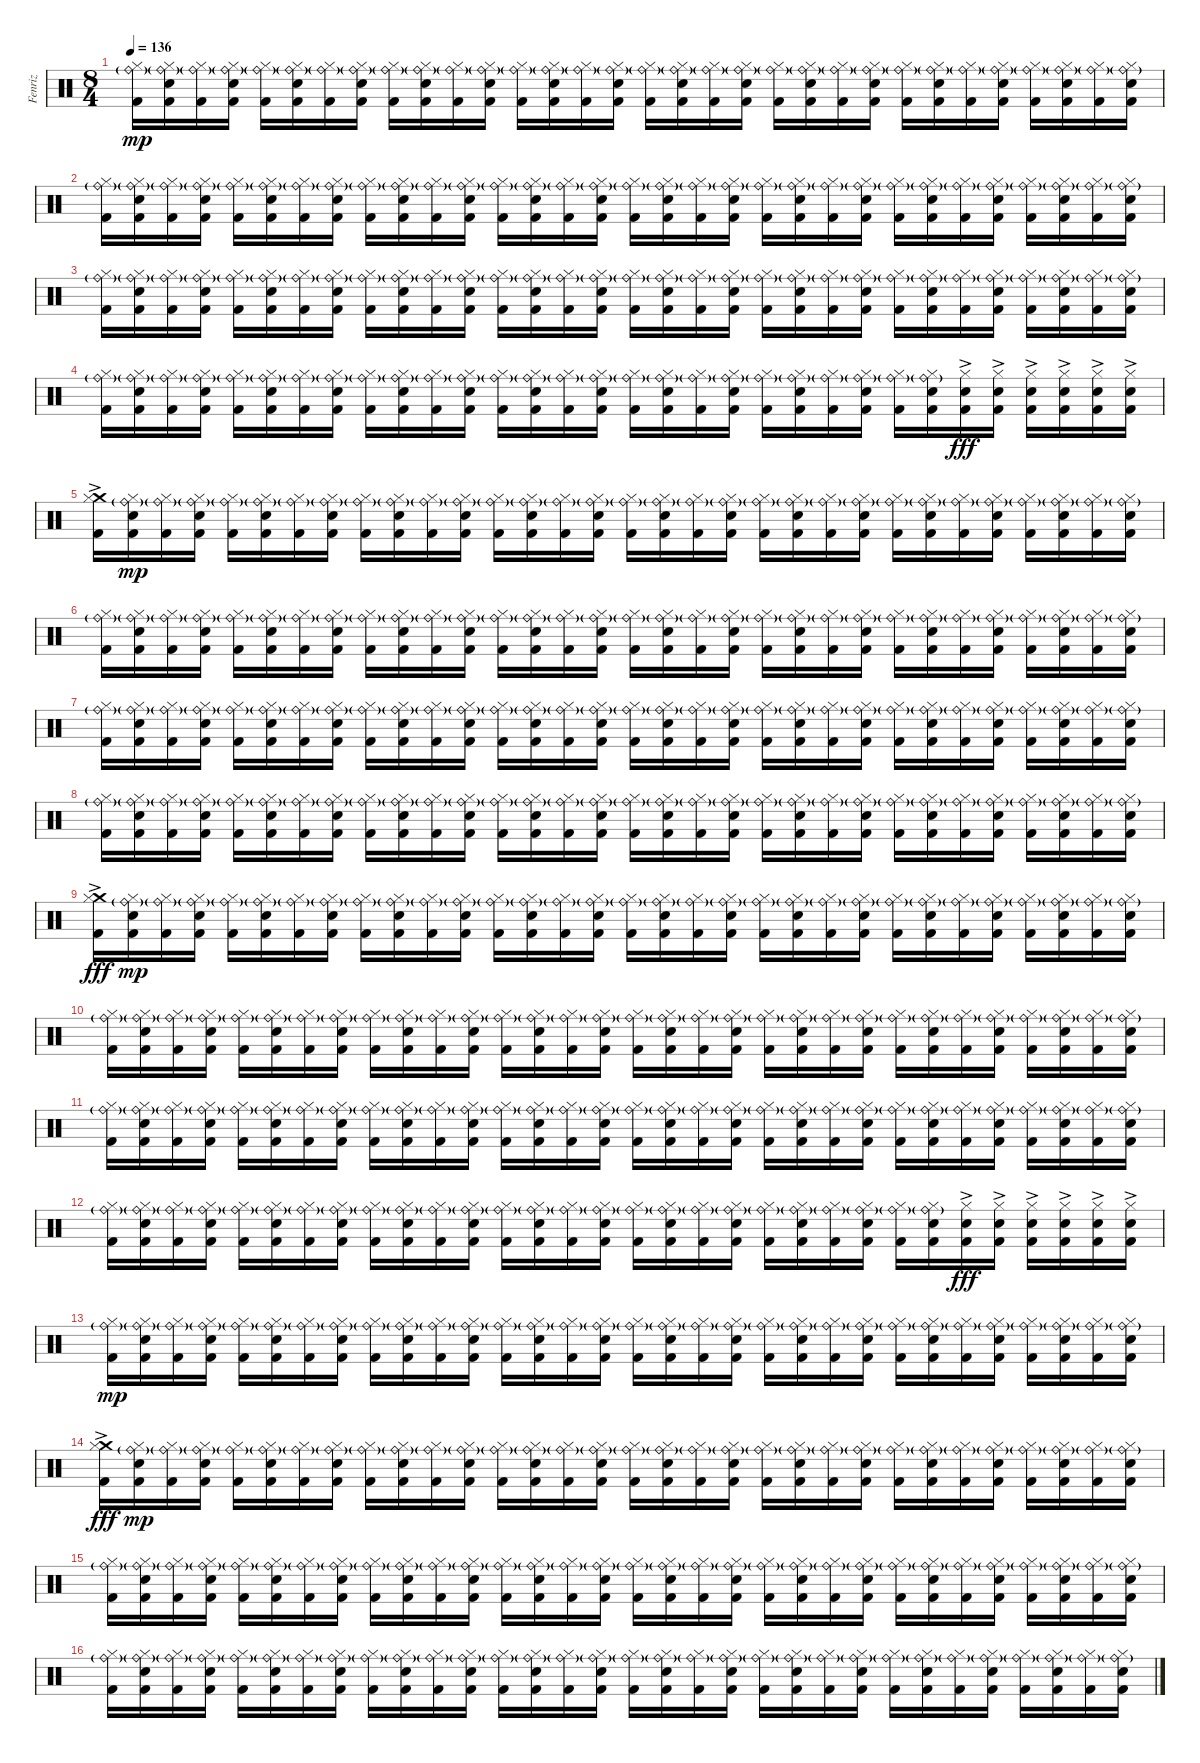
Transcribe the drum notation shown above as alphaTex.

\track ("Fenriz" "Fenriz") {instrument percussion}
\staff {score}
\articulation defaults
\ts (8 4)
\tempo 136
\clef neutral
\ks c
("Ride (bell)"{g} "Hi-Hat (closed)" "Kick (hit) 2").16{dy mp} ("Ride (bell)"{g} "Snare (hit) 2" "Hi-Hat (closed)" "Kick (hit) 2").16 ("Ride (bell)"{g} "Hi-Hat (closed)" "Kick (hit) 2").16 ("Ride (bell)"{g} "Snare (hit) 2" "Hi-Hat (closed)" "Kick (hit) 2").16 ("Ride (bell)"{g} "Hi-Hat (closed)" "Kick (hit) 2").16 ("Ride (bell)"{g} "Snare (hit) 2" "Hi-Hat (closed)" "Kick (hit) 2").16 ("Ride (bell)"{g} "Hi-Hat (closed)" "Kick (hit) 2").16 ("Ride (bell)"{g} "Snare (hit) 2" "Hi-Hat (closed)" "Kick (hit) 2").16 ("Ride (bell)"{g} "Hi-Hat (closed)" "Kick (hit) 2").16 ("Ride (bell)"{g} "Snare (hit) 2" "Hi-Hat (closed)" "Kick (hit) 2").16 ("Ride (bell)"{g} "Hi-Hat (closed)" "Kick (hit) 2").16 ("Ride (bell)"{g} "Snare (hit) 2" "Hi-Hat (closed)" "Kick (hit) 2").16 ("Ride (bell)"{g} "Hi-Hat (closed)" "Kick (hit) 2").16 ("Ride (bell)"{g} "Snare (hit) 2" "Hi-Hat (closed)" "Kick (hit) 2").16 ("Ride (bell)"{g} "Hi-Hat (closed)" "Kick (hit) 2").16 ("Ride (bell)"{g} "Snare (hit) 2" "Hi-Hat (closed)" "Kick (hit) 2").16 ("Ride (bell)"{g} "Hi-Hat (closed)" "Kick (hit) 2").16 ("Ride (bell)"{g} "Snare (hit) 2" "Hi-Hat (closed)" "Kick (hit) 2").16 ("Ride (bell)"{g} "Hi-Hat (closed)" "Kick (hit) 2").16 ("Ride (bell)"{g} "Snare (hit) 2" "Hi-Hat (closed)" "Kick (hit) 2").16 ("Ride (bell)"{g} "Hi-Hat (closed)" "Kick (hit) 2").16 ("Ride (bell)"{g} "Snare (hit) 2" "Hi-Hat (closed)" "Kick (hit) 2").16 ("Ride (bell)"{g} "Hi-Hat (closed)" "Kick (hit) 2").16 ("Ride (bell)"{g} "Snare (hit) 2" "Hi-Hat (closed)" "Kick (hit) 2").16 ("Ride (bell)"{g} "Hi-Hat (closed)" "Kick (hit) 2").16 ("Ride (bell)"{g} "Snare (hit) 2" "Hi-Hat (closed)" "Kick (hit) 2").16 ("Ride (bell)"{g} "Hi-Hat (closed)" "Kick (hit) 2").16 ("Ride (bell)"{g} "Snare (hit) 2" "Hi-Hat (closed)" "Kick (hit) 2").16 ("Ride (bell)"{g} "Hi-Hat (closed)" "Kick (hit) 2").16 ("Ride (bell)"{g} "Snare (hit) 2" "Hi-Hat (closed)" "Kick (hit) 2").16 ("Ride (bell)"{g} "Hi-Hat (closed)" "Kick (hit) 2").16 ("Ride (bell)"{g} "Snare (hit) 2" "Hi-Hat (closed)" "Kick (hit) 2").16 |
("Ride (bell)"{g} "Hi-Hat (closed)" "Kick (hit) 2").16 ("Ride (bell)"{g} "Snare (hit) 2" "Hi-Hat (closed)" "Kick (hit) 2").16 ("Ride (bell)"{g} "Hi-Hat (closed)" "Kick (hit) 2").16 ("Ride (bell)"{g} "Snare (hit) 2" "Hi-Hat (closed)" "Kick (hit) 2").16 ("Ride (bell)"{g} "Hi-Hat (closed)" "Kick (hit) 2").16 ("Ride (bell)"{g} "Snare (hit) 2" "Hi-Hat (closed)" "Kick (hit) 2").16 ("Ride (bell)"{g} "Hi-Hat (closed)" "Kick (hit) 2").16 ("Ride (bell)"{g} "Snare (hit) 2" "Hi-Hat (closed)" "Kick (hit) 2").16 ("Ride (bell)"{g} "Hi-Hat (closed)" "Kick (hit) 2").16 ("Ride (bell)"{g} "Snare (hit) 2" "Hi-Hat (closed)" "Kick (hit) 2").16 ("Ride (bell)"{g} "Hi-Hat (closed)" "Kick (hit) 2").16 ("Ride (bell)"{g} "Snare (hit) 2" "Hi-Hat (closed)" "Kick (hit) 2").16 ("Ride (bell)"{g} "Hi-Hat (closed)" "Kick (hit) 2").16 ("Ride (bell)"{g} "Snare (hit) 2" "Hi-Hat (closed)" "Kick (hit) 2").16 ("Ride (bell)"{g} "Hi-Hat (closed)" "Kick (hit) 2").16 ("Ride (bell)"{g} "Snare (hit) 2" "Hi-Hat (closed)" "Kick (hit) 2").16 ("Ride (bell)"{g} "Hi-Hat (closed)" "Kick (hit) 2").16 ("Ride (bell)"{g} "Snare (hit) 2" "Hi-Hat (closed)" "Kick (hit) 2").16 ("Ride (bell)"{g} "Hi-Hat (closed)" "Kick (hit) 2").16 ("Ride (bell)"{g} "Snare (hit) 2" "Hi-Hat (closed)" "Kick (hit) 2").16 ("Ride (bell)"{g} "Hi-Hat (closed)" "Kick (hit) 2").16 ("Ride (bell)"{g} "Snare (hit) 2" "Hi-Hat (closed)" "Kick (hit) 2").16 ("Ride (bell)"{g} "Hi-Hat (closed)" "Kick (hit) 2").16 ("Ride (bell)"{g} "Snare (hit) 2" "Hi-Hat (closed)" "Kick (hit) 2").16 ("Ride (bell)"{g} "Hi-Hat (closed)" "Kick (hit) 2").16 ("Ride (bell)"{g} "Snare (hit) 2" "Hi-Hat (closed)" "Kick (hit) 2").16 ("Ride (bell)"{g} "Hi-Hat (closed)" "Kick (hit) 2").16 ("Ride (bell)"{g} "Snare (hit) 2" "Hi-Hat (closed)" "Kick (hit) 2").16 ("Ride (bell)"{g} "Hi-Hat (closed)" "Kick (hit) 2").16 ("Ride (bell)"{g} "Snare (hit) 2" "Hi-Hat (closed)" "Kick (hit) 2").16 ("Ride (bell)"{g} "Hi-Hat (closed)" "Kick (hit) 2").16 ("Ride (bell)"{g} "Snare (hit) 2" "Hi-Hat (closed)" "Kick (hit) 2").16 |
("Ride (bell)"{g} "Hi-Hat (closed)" "Kick (hit) 2").16 ("Ride (bell)"{g} "Snare (hit) 2" "Hi-Hat (closed)" "Kick (hit) 2").16 ("Ride (bell)"{g} "Hi-Hat (closed)" "Kick (hit) 2").16 ("Ride (bell)"{g} "Snare (hit) 2" "Hi-Hat (closed)" "Kick (hit) 2").16 ("Ride (bell)"{g} "Hi-Hat (closed)" "Kick (hit) 2").16 ("Ride (bell)"{g} "Snare (hit) 2" "Hi-Hat (closed)" "Kick (hit) 2").16 ("Ride (bell)"{g} "Hi-Hat (closed)" "Kick (hit) 2").16 ("Ride (bell)"{g} "Snare (hit) 2" "Hi-Hat (closed)" "Kick (hit) 2").16 ("Ride (bell)"{g} "Hi-Hat (closed)" "Kick (hit) 2").16 ("Ride (bell)"{g} "Snare (hit) 2" "Hi-Hat (closed)" "Kick (hit) 2").16 ("Ride (bell)"{g} "Hi-Hat (closed)" "Kick (hit) 2").16 ("Ride (bell)"{g} "Snare (hit) 2" "Hi-Hat (closed)" "Kick (hit) 2").16 ("Ride (bell)"{g} "Hi-Hat (closed)" "Kick (hit) 2").16 ("Ride (bell)"{g} "Snare (hit) 2" "Hi-Hat (closed)" "Kick (hit) 2").16 ("Ride (bell)"{g} "Hi-Hat (closed)" "Kick (hit) 2").16 ("Ride (bell)"{g} "Snare (hit) 2" "Hi-Hat (closed)" "Kick (hit) 2").16 ("Ride (bell)"{g} "Hi-Hat (closed)" "Kick (hit) 2").16 ("Ride (bell)"{g} "Snare (hit) 2" "Hi-Hat (closed)" "Kick (hit) 2").16 ("Ride (bell)"{g} "Hi-Hat (closed)" "Kick (hit) 2").16 ("Ride (bell)"{g} "Snare (hit) 2" "Hi-Hat (closed)" "Kick (hit) 2").16 ("Ride (bell)"{g} "Hi-Hat (closed)" "Kick (hit) 2").16 ("Ride (bell)"{g} "Snare (hit) 2" "Hi-Hat (closed)" "Kick (hit) 2").16 ("Ride (bell)"{g} "Hi-Hat (closed)" "Kick (hit) 2").16 ("Ride (bell)"{g} "Snare (hit) 2" "Hi-Hat (closed)" "Kick (hit) 2").16 ("Ride (bell)"{g} "Hi-Hat (closed)" "Kick (hit) 2").16 ("Ride (bell)"{g} "Snare (hit) 2" "Hi-Hat (closed)" "Kick (hit) 2").16 ("Ride (bell)"{g} "Hi-Hat (closed)" "Kick (hit) 2").16 ("Ride (bell)"{g} "Snare (hit) 2" "Hi-Hat (closed)" "Kick (hit) 2").16 ("Ride (bell)"{g} "Hi-Hat (closed)" "Kick (hit) 2").16 ("Ride (bell)"{g} "Snare (hit) 2" "Hi-Hat (closed)" "Kick (hit) 2").16 ("Ride (bell)"{g} "Hi-Hat (closed)" "Kick (hit) 2").16 ("Ride (bell)"{g} "Snare (hit) 2" "Hi-Hat (closed)" "Kick (hit) 2").16 |
("Ride (bell)"{g} "Hi-Hat (closed)" "Kick (hit) 2").16 ("Ride (bell)"{g} "Snare (hit) 2" "Hi-Hat (closed)" "Kick (hit) 2").16 ("Ride (bell)"{g} "Hi-Hat (closed)" "Kick (hit) 2").16 ("Ride (bell)"{g} "Snare (hit) 2" "Hi-Hat (closed)" "Kick (hit) 2").16 ("Ride (bell)"{g} "Hi-Hat (closed)" "Kick (hit) 2").16 ("Ride (bell)"{g} "Snare (hit) 2" "Hi-Hat (closed)" "Kick (hit) 2").16 ("Ride (bell)"{g} "Hi-Hat (closed)" "Kick (hit) 2").16 ("Ride (bell)"{g} "Snare (hit) 2" "Hi-Hat (closed)" "Kick (hit) 2").16 ("Ride (bell)"{g} "Hi-Hat (closed)" "Kick (hit) 2").16 ("Ride (bell)"{g} "Snare (hit) 2" "Hi-Hat (closed)" "Kick (hit) 2").16 ("Ride (bell)"{g} "Hi-Hat (closed)" "Kick (hit) 2").16 ("Ride (bell)"{g} "Snare (hit) 2" "Hi-Hat (closed)" "Kick (hit) 2").16 ("Ride (bell)"{g} "Hi-Hat (closed)" "Kick (hit) 2").16 ("Ride (bell)"{g} "Snare (hit) 2" "Hi-Hat (closed)" "Kick (hit) 2").16 ("Ride (bell)"{g} "Hi-Hat (closed)" "Kick (hit) 2").16 ("Ride (bell)"{g} "Snare (hit) 2" "Hi-Hat (closed)" "Kick (hit) 2").16 ("Ride (bell)"{g} "Hi-Hat (closed)" "Kick (hit) 2").16 ("Ride (bell)"{g} "Snare (hit) 2" "Hi-Hat (closed)" "Kick (hit) 2").16 ("Ride (bell)"{g} "Hi-Hat (closed)" "Kick (hit) 2").16 ("Ride (bell)"{g} "Snare (hit) 2" "Hi-Hat (closed)" "Kick (hit) 2").16 ("Ride (bell)"{g} "Hi-Hat (closed)" "Kick (hit) 2").16 ("Ride (bell)"{g} "Snare (hit) 2" "Hi-Hat (closed)" "Kick (hit) 2").16 ("Ride (bell)"{g} "Hi-Hat (closed)" "Kick (hit) 2").16 ("Ride (bell)"{g} "Snare (hit) 2" "Hi-Hat (closed)" "Kick (hit) 2").16 ("Ride (bell)"{g} "Hi-Hat (closed)" "Kick (hit) 2").16 ("Ride (bell)"{g} "Snare (hit) 2" "Hi-Hat (closed)" "Kick (hit) 2").16 ("Snare (hit) 2"{ac} "Hi-Hat (closed)" "Kick (hit) 2").16{dy fff} ("Snare (hit) 2"{ac} "Hi-Hat (closed)" "Kick (hit) 2").16 ("Snare (hit) 2"{ac} "Hi-Hat (closed)" "Kick (hit) 2").16 ("Snare (hit) 2"{ac} "Hi-Hat (closed)" "Kick (hit) 2").16 ("Snare (hit) 2"{ac} "Hi-Hat (closed)" "Kick (hit) 2").16 ("Snare (hit) 2"{ac} "Hi-Hat (closed)" "Kick (hit) 2").16 |
("Crash medium (hit)"{ac} "Hi-Hat (closed)" "Kick (hit) 2").16 ("Ride (bell)"{g} "Snare (hit) 2" "Hi-Hat (closed)" "Kick (hit) 2").16{dy mp} ("Ride (bell)"{g} "Hi-Hat (closed)" "Kick (hit) 2").16 ("Ride (bell)"{g} "Snare (hit) 2" "Hi-Hat (closed)" "Kick (hit) 2").16 ("Ride (bell)"{g} "Hi-Hat (closed)" "Kick (hit) 2").16 ("Ride (bell)"{g} "Snare (hit) 2" "Hi-Hat (closed)" "Kick (hit) 2").16 ("Ride (bell)"{g} "Hi-Hat (closed)" "Kick (hit) 2").16 ("Ride (bell)"{g} "Snare (hit) 2" "Hi-Hat (closed)" "Kick (hit) 2").16 ("Ride (bell)"{g} "Hi-Hat (closed)" "Kick (hit) 2").16 ("Ride (bell)"{g} "Snare (hit) 2" "Hi-Hat (closed)" "Kick (hit) 2").16 ("Ride (bell)"{g} "Hi-Hat (closed)" "Kick (hit) 2").16 ("Ride (bell)"{g} "Snare (hit) 2" "Hi-Hat (closed)" "Kick (hit) 2").16 ("Ride (bell)"{g} "Hi-Hat (closed)" "Kick (hit) 2").16 ("Ride (bell)"{g} "Snare (hit) 2" "Hi-Hat (closed)" "Kick (hit) 2").16 ("Ride (bell)"{g} "Hi-Hat (closed)" "Kick (hit) 2").16 ("Ride (bell)"{g} "Snare (hit) 2" "Hi-Hat (closed)" "Kick (hit) 2").16 ("Ride (bell)"{g} "Hi-Hat (closed)" "Kick (hit) 2").16 ("Ride (bell)"{g} "Snare (hit) 2" "Hi-Hat (closed)" "Kick (hit) 2").16 ("Ride (bell)"{g} "Hi-Hat (closed)" "Kick (hit) 2").16 ("Ride (bell)"{g} "Snare (hit) 2" "Hi-Hat (closed)" "Kick (hit) 2").16 ("Ride (bell)"{g} "Hi-Hat (closed)" "Kick (hit) 2").16 ("Ride (bell)"{g} "Snare (hit) 2" "Hi-Hat (closed)" "Kick (hit) 2").16 ("Ride (bell)"{g} "Hi-Hat (closed)" "Kick (hit) 2").16 ("Ride (bell)"{g} "Snare (hit) 2" "Hi-Hat (closed)" "Kick (hit) 2").16 ("Ride (bell)"{g} "Hi-Hat (closed)" "Kick (hit) 2").16 ("Ride (bell)"{g} "Snare (hit) 2" "Hi-Hat (closed)" "Kick (hit) 2").16 ("Ride (bell)"{g} "Hi-Hat (closed)" "Kick (hit) 2").16 ("Ride (bell)"{g} "Snare (hit) 2" "Hi-Hat (closed)" "Kick (hit) 2").16 ("Ride (bell)"{g} "Hi-Hat (closed)" "Kick (hit) 2").16 ("Ride (bell)"{g} "Snare (hit) 2" "Hi-Hat (closed)" "Kick (hit) 2").16 ("Ride (bell)"{g} "Hi-Hat (closed)" "Kick (hit) 2").16 ("Ride (bell)"{g} "Snare (hit) 2" "Hi-Hat (closed)" "Kick (hit) 2").16 |
("Ride (bell)"{g} "Hi-Hat (closed)" "Kick (hit) 2").16 ("Ride (bell)"{g} "Snare (hit) 2" "Hi-Hat (closed)" "Kick (hit) 2").16 ("Ride (bell)"{g} "Hi-Hat (closed)" "Kick (hit) 2").16 ("Ride (bell)"{g} "Snare (hit) 2" "Hi-Hat (closed)" "Kick (hit) 2").16 ("Ride (bell)"{g} "Hi-Hat (closed)" "Kick (hit) 2").16 ("Ride (bell)"{g} "Snare (hit) 2" "Hi-Hat (closed)" "Kick (hit) 2").16 ("Ride (bell)"{g} "Hi-Hat (closed)" "Kick (hit) 2").16 ("Ride (bell)"{g} "Snare (hit) 2" "Hi-Hat (closed)" "Kick (hit) 2").16 ("Ride (bell)"{g} "Hi-Hat (closed)" "Kick (hit) 2").16 ("Ride (bell)"{g} "Snare (hit) 2" "Hi-Hat (closed)" "Kick (hit) 2").16 ("Ride (bell)"{g} "Hi-Hat (closed)" "Kick (hit) 2").16 ("Ride (bell)"{g} "Snare (hit) 2" "Hi-Hat (closed)" "Kick (hit) 2").16 ("Ride (bell)"{g} "Hi-Hat (closed)" "Kick (hit) 2").16 ("Ride (bell)"{g} "Snare (hit) 2" "Hi-Hat (closed)" "Kick (hit) 2").16 ("Ride (bell)"{g} "Hi-Hat (closed)" "Kick (hit) 2").16 ("Ride (bell)"{g} "Snare (hit) 2" "Hi-Hat (closed)" "Kick (hit) 2").16 ("Ride (bell)"{g} "Hi-Hat (closed)" "Kick (hit) 2").16 ("Ride (bell)"{g} "Snare (hit) 2" "Hi-Hat (closed)" "Kick (hit) 2").16 ("Ride (bell)"{g} "Hi-Hat (closed)" "Kick (hit) 2").16 ("Ride (bell)"{g} "Snare (hit) 2" "Hi-Hat (closed)" "Kick (hit) 2").16 ("Ride (bell)"{g} "Hi-Hat (closed)" "Kick (hit) 2").16 ("Ride (bell)"{g} "Snare (hit) 2" "Hi-Hat (closed)" "Kick (hit) 2").16 ("Ride (bell)"{g} "Hi-Hat (closed)" "Kick (hit) 2").16 ("Ride (bell)"{g} "Snare (hit) 2" "Hi-Hat (closed)" "Kick (hit) 2").16 ("Ride (bell)"{g} "Hi-Hat (closed)" "Kick (hit) 2").16 ("Ride (bell)"{g} "Snare (hit) 2" "Hi-Hat (closed)" "Kick (hit) 2").16 ("Ride (bell)"{g} "Hi-Hat (closed)" "Kick (hit) 2").16 ("Ride (bell)"{g} "Snare (hit) 2" "Hi-Hat (closed)" "Kick (hit) 2").16 ("Ride (bell)"{g} "Hi-Hat (closed)" "Kick (hit) 2").16 ("Ride (bell)"{g} "Snare (hit) 2" "Hi-Hat (closed)" "Kick (hit) 2").16 ("Ride (bell)"{g} "Hi-Hat (closed)" "Kick (hit) 2").16 ("Ride (bell)"{g} "Snare (hit) 2" "Hi-Hat (closed)" "Kick (hit) 2").16 |
("Ride (bell)"{g} "Hi-Hat (closed)" "Kick (hit) 2").16 ("Ride (bell)"{g} "Snare (hit) 2" "Hi-Hat (closed)" "Kick (hit) 2").16 ("Ride (bell)"{g} "Hi-Hat (closed)" "Kick (hit) 2").16 ("Ride (bell)"{g} "Snare (hit) 2" "Hi-Hat (closed)" "Kick (hit) 2").16 ("Ride (bell)"{g} "Hi-Hat (closed)" "Kick (hit) 2").16 ("Ride (bell)"{g} "Snare (hit) 2" "Hi-Hat (closed)" "Kick (hit) 2").16 ("Ride (bell)"{g} "Hi-Hat (closed)" "Kick (hit) 2").16 ("Ride (bell)"{g} "Snare (hit) 2" "Hi-Hat (closed)" "Kick (hit) 2").16 ("Ride (bell)"{g} "Hi-Hat (closed)" "Kick (hit) 2").16 ("Ride (bell)"{g} "Snare (hit) 2" "Hi-Hat (closed)" "Kick (hit) 2").16 ("Ride (bell)"{g} "Hi-Hat (closed)" "Kick (hit) 2").16 ("Ride (bell)"{g} "Snare (hit) 2" "Hi-Hat (closed)" "Kick (hit) 2").16 ("Ride (bell)"{g} "Hi-Hat (closed)" "Kick (hit) 2").16 ("Ride (bell)"{g} "Snare (hit) 2" "Hi-Hat (closed)" "Kick (hit) 2").16 ("Ride (bell)"{g} "Hi-Hat (closed)" "Kick (hit) 2").16 ("Ride (bell)"{g} "Snare (hit) 2" "Hi-Hat (closed)" "Kick (hit) 2").16 ("Ride (bell)"{g} "Hi-Hat (closed)" "Kick (hit) 2").16 ("Ride (bell)"{g} "Snare (hit) 2" "Hi-Hat (closed)" "Kick (hit) 2").16 ("Ride (bell)"{g} "Hi-Hat (closed)" "Kick (hit) 2").16 ("Ride (bell)"{g} "Snare (hit) 2" "Hi-Hat (closed)" "Kick (hit) 2").16 ("Ride (bell)"{g} "Hi-Hat (closed)" "Kick (hit) 2").16 ("Ride (bell)"{g} "Snare (hit) 2" "Hi-Hat (closed)" "Kick (hit) 2").16 ("Ride (bell)"{g} "Hi-Hat (closed)" "Kick (hit) 2").16 ("Ride (bell)"{g} "Snare (hit) 2" "Hi-Hat (closed)" "Kick (hit) 2").16 ("Ride (bell)"{g} "Hi-Hat (closed)" "Kick (hit) 2").16 ("Ride (bell)"{g} "Snare (hit) 2" "Hi-Hat (closed)" "Kick (hit) 2").16 ("Ride (bell)"{g} "Hi-Hat (closed)" "Kick (hit) 2").16 ("Ride (bell)"{g} "Snare (hit) 2" "Hi-Hat (closed)" "Kick (hit) 2").16 ("Ride (bell)"{g} "Hi-Hat (closed)" "Kick (hit) 2").16 ("Ride (bell)"{g} "Snare (hit) 2" "Hi-Hat (closed)" "Kick (hit) 2").16 ("Ride (bell)"{g} "Hi-Hat (closed)" "Kick (hit) 2").16 ("Ride (bell)"{g} "Snare (hit) 2" "Hi-Hat (closed)" "Kick (hit) 2").16 |
("Ride (bell)"{g} "Hi-Hat (closed)" "Kick (hit) 2").16 ("Ride (bell)"{g} "Snare (hit) 2" "Hi-Hat (closed)" "Kick (hit) 2").16 ("Ride (bell)"{g} "Hi-Hat (closed)" "Kick (hit) 2").16 ("Ride (bell)"{g} "Snare (hit) 2" "Hi-Hat (closed)" "Kick (hit) 2").16 ("Ride (bell)"{g} "Hi-Hat (closed)" "Kick (hit) 2").16 ("Ride (bell)"{g} "Snare (hit) 2" "Hi-Hat (closed)" "Kick (hit) 2").16 ("Ride (bell)"{g} "Hi-Hat (closed)" "Kick (hit) 2").16 ("Ride (bell)"{g} "Snare (hit) 2" "Hi-Hat (closed)" "Kick (hit) 2").16 ("Ride (bell)"{g} "Hi-Hat (closed)" "Kick (hit) 2").16 ("Ride (bell)"{g} "Snare (hit) 2" "Hi-Hat (closed)" "Kick (hit) 2").16 ("Ride (bell)"{g} "Hi-Hat (closed)" "Kick (hit) 2").16 ("Ride (bell)"{g} "Snare (hit) 2" "Hi-Hat (closed)" "Kick (hit) 2").16 ("Ride (bell)"{g} "Hi-Hat (closed)" "Kick (hit) 2").16 ("Ride (bell)"{g} "Snare (hit) 2" "Hi-Hat (closed)" "Kick (hit) 2").16 ("Ride (bell)"{g} "Hi-Hat (closed)" "Kick (hit) 2").16 ("Ride (bell)"{g} "Snare (hit) 2" "Hi-Hat (closed)" "Kick (hit) 2").16 ("Ride (bell)"{g} "Hi-Hat (closed)" "Kick (hit) 2").16 ("Ride (bell)"{g} "Snare (hit) 2" "Hi-Hat (closed)" "Kick (hit) 2").16 ("Ride (bell)"{g} "Hi-Hat (closed)" "Kick (hit) 2").16 ("Ride (bell)"{g} "Snare (hit) 2" "Hi-Hat (closed)" "Kick (hit) 2").16 ("Ride (bell)"{g} "Hi-Hat (closed)" "Kick (hit) 2").16 ("Ride (bell)"{g} "Snare (hit) 2" "Hi-Hat (closed)" "Kick (hit) 2").16 ("Ride (bell)"{g} "Hi-Hat (closed)" "Kick (hit) 2").16 ("Ride (bell)"{g} "Snare (hit) 2" "Hi-Hat (closed)" "Kick (hit) 2").16 ("Ride (bell)"{g} "Hi-Hat (closed)" "Kick (hit) 2").16 ("Ride (bell)"{g} "Snare (hit) 2" "Hi-Hat (closed)" "Kick (hit) 2").16 ("Ride (bell)"{g} "Hi-Hat (closed)" "Kick (hit) 2").16 ("Ride (bell)"{g} "Snare (hit) 2" "Hi-Hat (closed)" "Kick (hit) 2").16 ("Ride (bell)"{g} "Hi-Hat (closed)" "Kick (hit) 2").16 ("Ride (bell)"{g} "Snare (hit) 2" "Hi-Hat (closed)" "Kick (hit) 2").16 ("Ride (bell)"{g} "Hi-Hat (closed)" "Kick (hit) 2").16 ("Ride (bell)"{g} "Snare (hit) 2" "Hi-Hat (closed)" "Kick (hit) 2").16 |
("Crash medium (hit)"{ac} "Hi-Hat (closed)" "Kick (hit) 2").16{dy fff} ("Ride (bell)"{g} "Snare (hit) 2" "Hi-Hat (closed)" "Kick (hit) 2").16{dy mp} ("Ride (bell)"{g} "Hi-Hat (closed)" "Kick (hit) 2").16 ("Ride (bell)"{g} "Snare (hit) 2" "Hi-Hat (closed)" "Kick (hit) 2").16 ("Ride (bell)"{g} "Hi-Hat (closed)" "Kick (hit) 2").16 ("Ride (bell)"{g} "Snare (hit) 2" "Hi-Hat (closed)" "Kick (hit) 2").16 ("Ride (bell)"{g} "Hi-Hat (closed)" "Kick (hit) 2").16 ("Ride (bell)"{g} "Snare (hit) 2" "Hi-Hat (closed)" "Kick (hit) 2").16 ("Ride (bell)"{g} "Hi-Hat (closed)" "Kick (hit) 2").16 ("Ride (bell)"{g} "Snare (hit) 2" "Hi-Hat (closed)" "Kick (hit) 2").16 ("Ride (bell)"{g} "Hi-Hat (closed)" "Kick (hit) 2").16 ("Ride (bell)"{g} "Snare (hit) 2" "Hi-Hat (closed)" "Kick (hit) 2").16 ("Ride (bell)"{g} "Hi-Hat (closed)" "Kick (hit) 2").16 ("Ride (bell)"{g} "Snare (hit) 2" "Hi-Hat (closed)" "Kick (hit) 2").16 ("Ride (bell)"{g} "Hi-Hat (closed)" "Kick (hit) 2").16 ("Ride (bell)"{g} "Snare (hit) 2" "Hi-Hat (closed)" "Kick (hit) 2").16 ("Ride (bell)"{g} "Hi-Hat (closed)" "Kick (hit) 2").16 ("Ride (bell)"{g} "Snare (hit) 2" "Hi-Hat (closed)" "Kick (hit) 2").16 ("Ride (bell)"{g} "Hi-Hat (closed)" "Kick (hit) 2").16 ("Ride (bell)"{g} "Snare (hit) 2" "Hi-Hat (closed)" "Kick (hit) 2").16 ("Ride (bell)"{g} "Hi-Hat (closed)" "Kick (hit) 2").16 ("Ride (bell)"{g} "Snare (hit) 2" "Hi-Hat (closed)" "Kick (hit) 2").16 ("Ride (bell)"{g} "Hi-Hat (closed)" "Kick (hit) 2").16 ("Ride (bell)"{g} "Snare (hit) 2" "Hi-Hat (closed)" "Kick (hit) 2").16 ("Ride (bell)"{g} "Hi-Hat (closed)" "Kick (hit) 2").16 ("Ride (bell)"{g} "Snare (hit) 2" "Hi-Hat (closed)" "Kick (hit) 2").16 ("Ride (bell)"{g} "Hi-Hat (closed)" "Kick (hit) 2").16 ("Ride (bell)"{g} "Snare (hit) 2" "Hi-Hat (closed)" "Kick (hit) 2").16 ("Ride (bell)"{g} "Hi-Hat (closed)" "Kick (hit) 2").16 ("Ride (bell)"{g} "Snare (hit) 2" "Hi-Hat (closed)" "Kick (hit) 2").16 ("Ride (bell)"{g} "Hi-Hat (closed)" "Kick (hit) 2").16 ("Ride (bell)"{g} "Snare (hit) 2" "Hi-Hat (closed)" "Kick (hit) 2").16 |
("Ride (bell)"{g} "Hi-Hat (closed)" "Kick (hit) 2").16 ("Ride (bell)"{g} "Snare (hit) 2" "Hi-Hat (closed)" "Kick (hit) 2").16 ("Ride (bell)"{g} "Hi-Hat (closed)" "Kick (hit) 2").16 ("Ride (bell)"{g} "Snare (hit) 2" "Hi-Hat (closed)" "Kick (hit) 2").16 ("Ride (bell)"{g} "Hi-Hat (closed)" "Kick (hit) 2").16 ("Ride (bell)"{g} "Snare (hit) 2" "Hi-Hat (closed)" "Kick (hit) 2").16 ("Ride (bell)"{g} "Hi-Hat (closed)" "Kick (hit) 2").16 ("Ride (bell)"{g} "Snare (hit) 2" "Hi-Hat (closed)" "Kick (hit) 2").16 ("Ride (bell)"{g} "Hi-Hat (closed)" "Kick (hit) 2").16 ("Ride (bell)"{g} "Snare (hit) 2" "Hi-Hat (closed)" "Kick (hit) 2").16 ("Ride (bell)"{g} "Hi-Hat (closed)" "Kick (hit) 2").16 ("Ride (bell)"{g} "Snare (hit) 2" "Hi-Hat (closed)" "Kick (hit) 2").16 ("Ride (bell)"{g} "Hi-Hat (closed)" "Kick (hit) 2").16 ("Ride (bell)"{g} "Snare (hit) 2" "Hi-Hat (closed)" "Kick (hit) 2").16 ("Ride (bell)"{g} "Hi-Hat (closed)" "Kick (hit) 2").16 ("Ride (bell)"{g} "Snare (hit) 2" "Hi-Hat (closed)" "Kick (hit) 2").16 ("Ride (bell)"{g} "Hi-Hat (closed)" "Kick (hit) 2").16 ("Ride (bell)"{g} "Snare (hit) 2" "Hi-Hat (closed)" "Kick (hit) 2").16 ("Ride (bell)"{g} "Hi-Hat (closed)" "Kick (hit) 2").16 ("Ride (bell)"{g} "Snare (hit) 2" "Hi-Hat (closed)" "Kick (hit) 2").16 ("Ride (bell)"{g} "Hi-Hat (closed)" "Kick (hit) 2").16 ("Ride (bell)"{g} "Snare (hit) 2" "Hi-Hat (closed)" "Kick (hit) 2").16 ("Ride (bell)"{g} "Hi-Hat (closed)" "Kick (hit) 2").16 ("Ride (bell)"{g} "Snare (hit) 2" "Hi-Hat (closed)" "Kick (hit) 2").16 ("Ride (bell)"{g} "Hi-Hat (closed)" "Kick (hit) 2").16 ("Ride (bell)"{g} "Snare (hit) 2" "Hi-Hat (closed)" "Kick (hit) 2").16 ("Ride (bell)"{g} "Hi-Hat (closed)" "Kick (hit) 2").16 ("Ride (bell)"{g} "Snare (hit) 2" "Hi-Hat (closed)" "Kick (hit) 2").16 ("Ride (bell)"{g} "Hi-Hat (closed)" "Kick (hit) 2").16 ("Ride (bell)"{g} "Snare (hit) 2" "Hi-Hat (closed)" "Kick (hit) 2").16 ("Ride (bell)"{g} "Hi-Hat (closed)" "Kick (hit) 2").16 ("Ride (bell)"{g} "Snare (hit) 2" "Hi-Hat (closed)" "Kick (hit) 2").16 |
("Ride (bell)"{g} "Hi-Hat (closed)" "Kick (hit) 2").16 ("Ride (bell)"{g} "Snare (hit) 2" "Hi-Hat (closed)" "Kick (hit) 2").16 ("Ride (bell)"{g} "Hi-Hat (closed)" "Kick (hit) 2").16 ("Ride (bell)"{g} "Snare (hit) 2" "Hi-Hat (closed)" "Kick (hit) 2").16 ("Ride (bell)"{g} "Hi-Hat (closed)" "Kick (hit) 2").16 ("Ride (bell)"{g} "Snare (hit) 2" "Hi-Hat (closed)" "Kick (hit) 2").16 ("Ride (bell)"{g} "Hi-Hat (closed)" "Kick (hit) 2").16 ("Ride (bell)"{g} "Snare (hit) 2" "Hi-Hat (closed)" "Kick (hit) 2").16 ("Ride (bell)"{g} "Hi-Hat (closed)" "Kick (hit) 2").16 ("Ride (bell)"{g} "Snare (hit) 2" "Hi-Hat (closed)" "Kick (hit) 2").16 ("Ride (bell)"{g} "Hi-Hat (closed)" "Kick (hit) 2").16 ("Ride (bell)"{g} "Snare (hit) 2" "Hi-Hat (closed)" "Kick (hit) 2").16 ("Ride (bell)"{g} "Hi-Hat (closed)" "Kick (hit) 2").16 ("Ride (bell)"{g} "Snare (hit) 2" "Hi-Hat (closed)" "Kick (hit) 2").16 ("Ride (bell)"{g} "Hi-Hat (closed)" "Kick (hit) 2").16 ("Ride (bell)"{g} "Snare (hit) 2" "Hi-Hat (closed)" "Kick (hit) 2").16 ("Ride (bell)"{g} "Hi-Hat (closed)" "Kick (hit) 2").16 ("Ride (bell)"{g} "Snare (hit) 2" "Hi-Hat (closed)" "Kick (hit) 2").16 ("Ride (bell)"{g} "Hi-Hat (closed)" "Kick (hit) 2").16 ("Ride (bell)"{g} "Snare (hit) 2" "Hi-Hat (closed)" "Kick (hit) 2").16 ("Ride (bell)"{g} "Hi-Hat (closed)" "Kick (hit) 2").16 ("Ride (bell)"{g} "Snare (hit) 2" "Hi-Hat (closed)" "Kick (hit) 2").16 ("Ride (bell)"{g} "Hi-Hat (closed)" "Kick (hit) 2").16 ("Ride (bell)"{g} "Snare (hit) 2" "Hi-Hat (closed)" "Kick (hit) 2").16 ("Ride (bell)"{g} "Hi-Hat (closed)" "Kick (hit) 2").16 ("Ride (bell)"{g} "Snare (hit) 2" "Hi-Hat (closed)" "Kick (hit) 2").16 ("Ride (bell)"{g} "Hi-Hat (closed)" "Kick (hit) 2").16 ("Ride (bell)"{g} "Snare (hit) 2" "Hi-Hat (closed)" "Kick (hit) 2").16 ("Ride (bell)"{g} "Hi-Hat (closed)" "Kick (hit) 2").16 ("Ride (bell)"{g} "Snare (hit) 2" "Hi-Hat (closed)" "Kick (hit) 2").16 ("Ride (bell)"{g} "Hi-Hat (closed)" "Kick (hit) 2").16 ("Ride (bell)"{g} "Snare (hit) 2" "Hi-Hat (closed)" "Kick (hit) 2").16 |
("Ride (bell)"{g} "Hi-Hat (closed)" "Kick (hit) 2").16 ("Ride (bell)"{g} "Snare (hit) 2" "Hi-Hat (closed)" "Kick (hit) 2").16 ("Ride (bell)"{g} "Hi-Hat (closed)" "Kick (hit) 2").16 ("Ride (bell)"{g} "Snare (hit) 2" "Hi-Hat (closed)" "Kick (hit) 2").16 ("Ride (bell)"{g} "Hi-Hat (closed)" "Kick (hit) 2").16 ("Ride (bell)"{g} "Snare (hit) 2" "Hi-Hat (closed)" "Kick (hit) 2").16 ("Ride (bell)"{g} "Hi-Hat (closed)" "Kick (hit) 2").16 ("Ride (bell)"{g} "Snare (hit) 2" "Hi-Hat (closed)" "Kick (hit) 2").16 ("Ride (bell)"{g} "Hi-Hat (closed)" "Kick (hit) 2").16 ("Ride (bell)"{g} "Snare (hit) 2" "Hi-Hat (closed)" "Kick (hit) 2").16 ("Ride (bell)"{g} "Hi-Hat (closed)" "Kick (hit) 2").16 ("Ride (bell)"{g} "Snare (hit) 2" "Hi-Hat (closed)" "Kick (hit) 2").16 ("Ride (bell)"{g} "Hi-Hat (closed)" "Kick (hit) 2").16 ("Ride (bell)"{g} "Snare (hit) 2" "Hi-Hat (closed)" "Kick (hit) 2").16 ("Ride (bell)"{g} "Hi-Hat (closed)" "Kick (hit) 2").16 ("Ride (bell)"{g} "Snare (hit) 2" "Hi-Hat (closed)" "Kick (hit) 2").16 ("Ride (bell)"{g} "Hi-Hat (closed)" "Kick (hit) 2").16 ("Ride (bell)"{g} "Snare (hit) 2" "Hi-Hat (closed)" "Kick (hit) 2").16 ("Ride (bell)"{g} "Hi-Hat (closed)" "Kick (hit) 2").16 ("Ride (bell)"{g} "Snare (hit) 2" "Hi-Hat (closed)" "Kick (hit) 2").16 ("Ride (bell)"{g} "Hi-Hat (closed)" "Kick (hit) 2").16 ("Ride (bell)"{g} "Snare (hit) 2" "Hi-Hat (closed)" "Kick (hit) 2").16 ("Ride (bell)"{g} "Hi-Hat (closed)" "Kick (hit) 2").16 ("Ride (bell)"{g} "Snare (hit) 2" "Hi-Hat (closed)" "Kick (hit) 2").16 ("Ride (bell)"{g} "Hi-Hat (closed)" "Kick (hit) 2").16 ("Ride (bell)"{g} "Snare (hit) 2" "Hi-Hat (closed)" "Kick (hit) 2").16 ("Snare (hit) 2"{ac} "Hi-Hat (closed)" "Kick (hit) 2").16{dy fff} ("Snare (hit) 2"{ac} "Hi-Hat (closed)" "Kick (hit) 2").16 ("Snare (hit) 2"{ac} "Hi-Hat (closed)" "Kick (hit) 2").16 ("Snare (hit) 2"{ac} "Hi-Hat (closed)" "Kick (hit) 2").16 ("Snare (hit) 2"{ac} "Hi-Hat (closed)" "Kick (hit) 2").16 ("Snare (hit) 2"{ac} "Hi-Hat (closed)" "Kick (hit) 2").16 |
("Ride (bell)"{g} "Hi-Hat (closed)" "Kick (hit) 2").16{dy mp} ("Ride (bell)"{g} "Snare (hit) 2" "Hi-Hat (closed)" "Kick (hit) 2").16 ("Ride (bell)"{g} "Hi-Hat (closed)" "Kick (hit) 2").16 ("Ride (bell)"{g} "Snare (hit) 2" "Hi-Hat (closed)" "Kick (hit) 2").16 ("Ride (bell)"{g} "Hi-Hat (closed)" "Kick (hit) 2").16 ("Ride (bell)"{g} "Snare (hit) 2" "Hi-Hat (closed)" "Kick (hit) 2").16 ("Ride (bell)"{g} "Hi-Hat (closed)" "Kick (hit) 2").16 ("Ride (bell)"{g} "Snare (hit) 2" "Hi-Hat (closed)" "Kick (hit) 2").16 ("Ride (bell)"{g} "Hi-Hat (closed)" "Kick (hit) 2").16 ("Ride (bell)"{g} "Snare (hit) 2" "Hi-Hat (closed)" "Kick (hit) 2").16 ("Ride (bell)"{g} "Hi-Hat (closed)" "Kick (hit) 2").16 ("Ride (bell)"{g} "Snare (hit) 2" "Hi-Hat (closed)" "Kick (hit) 2").16 ("Ride (bell)"{g} "Hi-Hat (closed)" "Kick (hit) 2").16 ("Ride (bell)"{g} "Snare (hit) 2" "Hi-Hat (closed)" "Kick (hit) 2").16 ("Ride (bell)"{g} "Hi-Hat (closed)" "Kick (hit) 2").16 ("Ride (bell)"{g} "Snare (hit) 2" "Hi-Hat (closed)" "Kick (hit) 2").16 ("Ride (bell)"{g} "Hi-Hat (closed)" "Kick (hit) 2").16 ("Ride (bell)"{g} "Snare (hit) 2" "Hi-Hat (closed)" "Kick (hit) 2").16 ("Ride (bell)"{g} "Hi-Hat (closed)" "Kick (hit) 2").16 ("Ride (bell)"{g} "Snare (hit) 2" "Hi-Hat (closed)" "Kick (hit) 2").16 ("Ride (bell)"{g} "Hi-Hat (closed)" "Kick (hit) 2").16 ("Ride (bell)"{g} "Snare (hit) 2" "Hi-Hat (closed)" "Kick (hit) 2").16 ("Ride (bell)"{g} "Hi-Hat (closed)" "Kick (hit) 2").16 ("Ride (bell)"{g} "Snare (hit) 2" "Hi-Hat (closed)" "Kick (hit) 2").16 ("Ride (bell)"{g} "Hi-Hat (closed)" "Kick (hit) 2").16 ("Ride (bell)"{g} "Snare (hit) 2" "Hi-Hat (closed)" "Kick (hit) 2").16 ("Ride (bell)"{g} "Hi-Hat (closed)" "Kick (hit) 2").16 ("Ride (bell)"{g} "Snare (hit) 2" "Hi-Hat (closed)" "Kick (hit) 2").16 ("Ride (bell)"{g} "Hi-Hat (closed)" "Kick (hit) 2").16 ("Ride (bell)"{g} "Snare (hit) 2" "Hi-Hat (closed)" "Kick (hit) 2").16 ("Ride (bell)"{g} "Hi-Hat (closed)" "Kick (hit) 2").16 ("Ride (bell)"{g} "Snare (hit) 2" "Hi-Hat (closed)" "Kick (hit) 2").16 |
("Crash medium (hit)"{ac} "Hi-Hat (closed)" "Kick (hit) 2").16{dy fff} ("Ride (bell)"{g} "Snare (hit) 2" "Hi-Hat (closed)" "Kick (hit) 2").16{dy mp} ("Ride (bell)"{g} "Hi-Hat (closed)" "Kick (hit) 2").16 ("Ride (bell)"{g} "Snare (hit) 2" "Hi-Hat (closed)" "Kick (hit) 2").16 ("Ride (bell)"{g} "Hi-Hat (closed)" "Kick (hit) 2").16 ("Ride (bell)"{g} "Snare (hit) 2" "Hi-Hat (closed)" "Kick (hit) 2").16 ("Ride (bell)"{g} "Hi-Hat (closed)" "Kick (hit) 2").16 ("Ride (bell)"{g} "Snare (hit) 2" "Hi-Hat (closed)" "Kick (hit) 2").16 ("Ride (bell)"{g} "Hi-Hat (closed)" "Kick (hit) 2").16 ("Ride (bell)"{g} "Snare (hit) 2" "Hi-Hat (closed)" "Kick (hit) 2").16 ("Ride (bell)"{g} "Hi-Hat (closed)" "Kick (hit) 2").16 ("Ride (bell)"{g} "Snare (hit) 2" "Hi-Hat (closed)" "Kick (hit) 2").16 ("Ride (bell)"{g} "Hi-Hat (closed)" "Kick (hit) 2").16 ("Ride (bell)"{g} "Snare (hit) 2" "Hi-Hat (closed)" "Kick (hit) 2").16 ("Ride (bell)"{g} "Hi-Hat (closed)" "Kick (hit) 2").16 ("Ride (bell)"{g} "Snare (hit) 2" "Hi-Hat (closed)" "Kick (hit) 2").16 ("Ride (bell)"{g} "Hi-Hat (closed)" "Kick (hit) 2").16 ("Ride (bell)"{g} "Snare (hit) 2" "Hi-Hat (closed)" "Kick (hit) 2").16 ("Ride (bell)"{g} "Hi-Hat (closed)" "Kick (hit) 2").16 ("Ride (bell)"{g} "Snare (hit) 2" "Hi-Hat (closed)" "Kick (hit) 2").16 ("Ride (bell)"{g} "Hi-Hat (closed)" "Kick (hit) 2").16 ("Ride (bell)"{g} "Snare (hit) 2" "Hi-Hat (closed)" "Kick (hit) 2").16 ("Ride (bell)"{g} "Hi-Hat (closed)" "Kick (hit) 2").16 ("Ride (bell)"{g} "Snare (hit) 2" "Hi-Hat (closed)" "Kick (hit) 2").16 ("Ride (bell)"{g} "Hi-Hat (closed)" "Kick (hit) 2").16 ("Ride (bell)"{g} "Snare (hit) 2" "Hi-Hat (closed)" "Kick (hit) 2").16 ("Ride (bell)"{g} "Hi-Hat (closed)" "Kick (hit) 2").16 ("Ride (bell)"{g} "Snare (hit) 2" "Hi-Hat (closed)" "Kick (hit) 2").16 ("Ride (bell)"{g} "Hi-Hat (closed)" "Kick (hit) 2").16 ("Ride (bell)"{g} "Snare (hit) 2" "Hi-Hat (closed)" "Kick (hit) 2").16 ("Ride (bell)"{g} "Hi-Hat (closed)" "Kick (hit) 2").16 ("Ride (bell)"{g} "Snare (hit) 2" "Hi-Hat (closed)" "Kick (hit) 2").16 |
("Ride (bell)"{g} "Hi-Hat (closed)" "Kick (hit) 2").16 ("Ride (bell)"{g} "Snare (hit) 2" "Hi-Hat (closed)" "Kick (hit) 2").16 ("Ride (bell)"{g} "Hi-Hat (closed)" "Kick (hit) 2").16 ("Ride (bell)"{g} "Snare (hit) 2" "Hi-Hat (closed)" "Kick (hit) 2").16 ("Ride (bell)"{g} "Hi-Hat (closed)" "Kick (hit) 2").16 ("Ride (bell)"{g} "Snare (hit) 2" "Hi-Hat (closed)" "Kick (hit) 2").16 ("Ride (bell)"{g} "Hi-Hat (closed)" "Kick (hit) 2").16 ("Ride (bell)"{g} "Snare (hit) 2" "Hi-Hat (closed)" "Kick (hit) 2").16 ("Ride (bell)"{g} "Hi-Hat (closed)" "Kick (hit) 2").16 ("Ride (bell)"{g} "Snare (hit) 2" "Hi-Hat (closed)" "Kick (hit) 2").16 ("Ride (bell)"{g} "Hi-Hat (closed)" "Kick (hit) 2").16 ("Ride (bell)"{g} "Snare (hit) 2" "Hi-Hat (closed)" "Kick (hit) 2").16 ("Ride (bell)"{g} "Hi-Hat (closed)" "Kick (hit) 2").16 ("Ride (bell)"{g} "Snare (hit) 2" "Hi-Hat (closed)" "Kick (hit) 2").16 ("Ride (bell)"{g} "Hi-Hat (closed)" "Kick (hit) 2").16 ("Ride (bell)"{g} "Snare (hit) 2" "Hi-Hat (closed)" "Kick (hit) 2").16 ("Ride (bell)"{g} "Hi-Hat (closed)" "Kick (hit) 2").16 ("Ride (bell)"{g} "Snare (hit) 2" "Hi-Hat (closed)" "Kick (hit) 2").16 ("Ride (bell)"{g} "Hi-Hat (closed)" "Kick (hit) 2").16 ("Ride (bell)"{g} "Snare (hit) 2" "Hi-Hat (closed)" "Kick (hit) 2").16 ("Ride (bell)"{g} "Hi-Hat (closed)" "Kick (hit) 2").16 ("Ride (bell)"{g} "Snare (hit) 2" "Hi-Hat (closed)" "Kick (hit) 2").16 ("Ride (bell)"{g} "Hi-Hat (closed)" "Kick (hit) 2").16 ("Ride (bell)"{g} "Snare (hit) 2" "Hi-Hat (closed)" "Kick (hit) 2").16 ("Ride (bell)"{g} "Hi-Hat (closed)" "Kick (hit) 2").16 ("Ride (bell)"{g} "Snare (hit) 2" "Hi-Hat (closed)" "Kick (hit) 2").16 ("Ride (bell)"{g} "Hi-Hat (closed)" "Kick (hit) 2").16 ("Ride (bell)"{g} "Snare (hit) 2" "Hi-Hat (closed)" "Kick (hit) 2").16 ("Ride (bell)"{g} "Hi-Hat (closed)" "Kick (hit) 2").16 ("Ride (bell)"{g} "Snare (hit) 2" "Hi-Hat (closed)" "Kick (hit) 2").16 ("Ride (bell)"{g} "Hi-Hat (closed)" "Kick (hit) 2").16 ("Ride (bell)"{g} "Snare (hit) 2" "Hi-Hat (closed)" "Kick (hit) 2").16 |
("Ride (bell)"{g} "Hi-Hat (closed)" "Kick (hit) 2").16 ("Ride (bell)"{g} "Snare (hit) 2" "Hi-Hat (closed)" "Kick (hit) 2").16 ("Ride (bell)"{g} "Hi-Hat (closed)" "Kick (hit) 2").16 ("Ride (bell)"{g} "Snare (hit) 2" "Hi-Hat (closed)" "Kick (hit) 2").16 ("Ride (bell)"{g} "Hi-Hat (closed)" "Kick (hit) 2").16 ("Ride (bell)"{g} "Snare (hit) 2" "Hi-Hat (closed)" "Kick (hit) 2").16 ("Ride (bell)"{g} "Hi-Hat (closed)" "Kick (hit) 2").16 ("Ride (bell)"{g} "Snare (hit) 2" "Hi-Hat (closed)" "Kick (hit) 2").16 ("Ride (bell)"{g} "Hi-Hat (closed)" "Kick (hit) 2").16 ("Ride (bell)"{g} "Snare (hit) 2" "Hi-Hat (closed)" "Kick (hit) 2").16 ("Ride (bell)"{g} "Hi-Hat (closed)" "Kick (hit) 2").16 ("Ride (bell)"{g} "Snare (hit) 2" "Hi-Hat (closed)" "Kick (hit) 2").16 ("Ride (bell)"{g} "Hi-Hat (closed)" "Kick (hit) 2").16 ("Ride (bell)"{g} "Snare (hit) 2" "Hi-Hat (closed)" "Kick (hit) 2").16 ("Ride (bell)"{g} "Hi-Hat (closed)" "Kick (hit) 2").16 ("Ride (bell)"{g} "Snare (hit) 2" "Hi-Hat (closed)" "Kick (hit) 2").16 ("Ride (bell)"{g} "Hi-Hat (closed)" "Kick (hit) 2").16 ("Ride (bell)"{g} "Snare (hit) 2" "Hi-Hat (closed)" "Kick (hit) 2").16 ("Ride (bell)"{g} "Hi-Hat (closed)" "Kick (hit) 2").16 ("Ride (bell)"{g} "Snare (hit) 2" "Hi-Hat (closed)" "Kick (hit) 2").16 ("Ride (bell)"{g} "Hi-Hat (closed)" "Kick (hit) 2").16 ("Ride (bell)"{g} "Snare (hit) 2" "Hi-Hat (closed)" "Kick (hit) 2").16 ("Ride (bell)"{g} "Hi-Hat (closed)" "Kick (hit) 2").16 ("Ride (bell)"{g} "Snare (hit) 2" "Hi-Hat (closed)" "Kick (hit) 2").16 ("Ride (bell)"{g} "Hi-Hat (closed)" "Kick (hit) 2").16 ("Ride (bell)"{g} "Snare (hit) 2" "Hi-Hat (closed)" "Kick (hit) 2").16 ("Ride (bell)"{g} "Hi-Hat (closed)" "Kick (hit) 2").16 ("Ride (bell)"{g} "Snare (hit) 2" "Hi-Hat (closed)" "Kick (hit) 2").16 ("Ride (bell)"{g} "Hi-Hat (closed)" "Kick (hit) 2").16 ("Ride (bell)"{g} "Snare (hit) 2" "Hi-Hat (closed)" "Kick (hit) 2").16 ("Ride (bell)"{g} "Hi-Hat (closed)" "Kick (hit) 2").16 ("Ride (bell)"{g} "Snare (hit) 2" "Hi-Hat (closed)" "Kick (hit) 2").16
